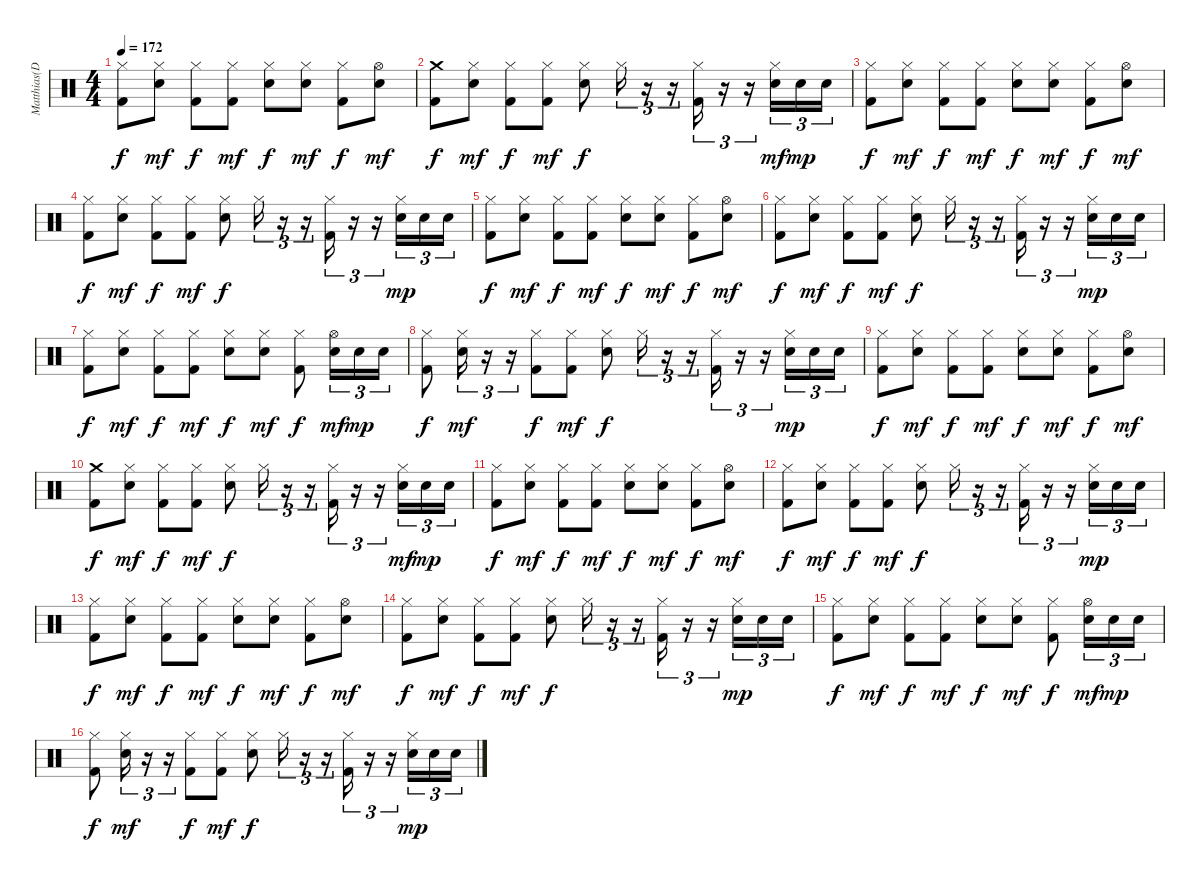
\track ("Matthias(Drums)" "Matthias(D") {instrument percussion}
\staff {score}
\articulation defaults
\ts (4 4)
\tempo 172
\clef neutral
\ks c
("Hi-Hat (closed)" "Kick (hit) 2").8{dy f} ("Hi-Hat (closed)" "Snare (hit) 2").8{dy mf} ("Hi-Hat (closed)" "Kick (hit) 2").8{dy f} ("Hi-Hat (closed)" "Kick (hit) 2").8{dy mf} ("Hi-Hat (closed)" "Snare (hit) 2").8{dy f} ("Hi-Hat (closed)" "Snare (hit) 2").8{dy mf} ("Hi-Hat (closed)" "Kick (hit) 2").8{dy f} ("Hi-Hat (open)" "Snare (hit) 2").8{dy mf} |
("Crash medium (hit)" "Kick (hit) 2").8{dy f} ("Hi-Hat (closed)" "Snare (hit) 2").8{dy mf} ("Hi-Hat (closed)" "Kick (hit) 2").8{dy f} ("Hi-Hat (closed)" "Kick (hit) 2").8{dy mf} ("Hi-Hat (closed)" "Snare (hit) 2").8{dy f} "Hi-Hat (closed)".16{tu (3 2)} r.16{tu (3 2)} r.16{tu (3 2)} ("Hi-Hat (closed)" "Kick (hit) 2").16{tu (3 2)} r.16{tu (3 2)} r.16{tu (3 2)} ("Hi-Hat (closed)" "Snare (hit) 2").16{tu (3 2) dy mf} "Snare (hit) 2".16{tu (3 2) dy mp} "Snare (hit) 2".16{tu (3 2)} |
("Hi-Hat (closed)" "Kick (hit) 2").8{dy f} ("Hi-Hat (closed)" "Snare (hit) 2").8{dy mf} ("Hi-Hat (closed)" "Kick (hit) 2").8{dy f} ("Hi-Hat (closed)" "Kick (hit) 2").8{dy mf} ("Hi-Hat (closed)" "Snare (hit) 2").8{dy f} ("Hi-Hat (closed)" "Snare (hit) 2").8{dy mf} ("Hi-Hat (closed)" "Kick (hit) 2").8{dy f} ("Hi-Hat (open)" "Snare (hit) 2").8{dy mf} |
("Hi-Hat (closed)" "Kick (hit) 2").8{dy f} ("Hi-Hat (closed)" "Snare (hit) 2").8{dy mf} ("Hi-Hat (closed)" "Kick (hit) 2").8{dy f} ("Hi-Hat (closed)" "Kick (hit) 2").8{dy mf} ("Hi-Hat (closed)" "Snare (hit) 2").8{dy f} "Hi-Hat (closed)".16{tu (3 2)} r.16{tu (3 2)} r.16{tu (3 2)} ("Hi-Hat (closed)" "Kick (hit) 2").16{tu (3 2)} r.16{tu (3 2)} r.16{tu (3 2)} ("Hi-Hat (closed)" "Snare (hit) 2").16{tu (3 2) dy mp} "Snare (hit) 2".16{tu (3 2)} "Snare (hit) 2".16{tu (3 2)} |
("Hi-Hat (closed)" "Kick (hit) 2").8{dy f} ("Hi-Hat (closed)" "Snare (hit) 2").8{dy mf} ("Hi-Hat (closed)" "Kick (hit) 2").8{dy f} ("Hi-Hat (closed)" "Kick (hit) 2").8{dy mf} ("Hi-Hat (closed)" "Snare (hit) 2").8{dy f} ("Hi-Hat (closed)" "Snare (hit) 2").8{dy mf} ("Hi-Hat (closed)" "Kick (hit) 2").8{dy f} ("Hi-Hat (open)" "Snare (hit) 2").8{dy mf} |
("Hi-Hat (closed)" "Kick (hit) 2").8{dy f} ("Hi-Hat (closed)" "Snare (hit) 2").8{dy mf} ("Hi-Hat (closed)" "Kick (hit) 2").8{dy f} ("Hi-Hat (closed)" "Kick (hit) 2").8{dy mf} ("Hi-Hat (closed)" "Snare (hit) 2").8{dy f} "Hi-Hat (closed)".16{tu (3 2)} r.16{tu (3 2)} r.16{tu (3 2)} ("Hi-Hat (closed)" "Kick (hit) 2").16{tu (3 2)} r.16{tu (3 2)} r.16{tu (3 2)} ("Hi-Hat (closed)" "Snare (hit) 2").16{tu (3 2) dy mp} "Snare (hit) 2".16{tu (3 2)} "Snare (hit) 2".16{tu (3 2)} |
("Hi-Hat (closed)" "Kick (hit) 2").8{dy f} ("Hi-Hat (closed)" "Snare (hit) 2").8{dy mf} ("Hi-Hat (closed)" "Kick (hit) 2").8{dy f} ("Hi-Hat (closed)" "Kick (hit) 2").8{dy mf} ("Hi-Hat (closed)" "Snare (hit) 2").8{dy f} ("Hi-Hat (closed)" "Snare (hit) 2").8{dy mf} ("Hi-Hat (closed)" "Kick (hit) 2").8{dy f} ("Hi-Hat (open)" "Snare (hit) 2").16{tu (3 2) dy mf} "Snare (hit) 2".16{tu (3 2) dy mp} "Snare (hit) 2".16{tu (3 2)} |
("Hi-Hat (closed)" "Kick (hit) 2").8{dy f} ("Hi-Hat (closed)" "Snare (hit) 2").16{tu (3 2) dy mf} r.16{tu (3 2)} r.16{tu (3 2)} ("Hi-Hat (closed)" "Kick (hit) 2").8{dy f} ("Hi-Hat (closed)" "Kick (hit) 2").8{dy mf} ("Hi-Hat (closed)" "Snare (hit) 2").8{dy f} "Hi-Hat (closed)".16{tu (3 2)} r.16{tu (3 2)} r.16{tu (3 2)} ("Hi-Hat (closed)" "Kick (hit) 2").16{tu (3 2)} r.16{tu (3 2)} r.16{tu (3 2)} ("Hi-Hat (closed)" "Snare (hit) 2").16{tu (3 2) dy mp} "Snare (hit) 2".16{tu (3 2)} "Snare (hit) 2".16{tu (3 2)} |
("Hi-Hat (closed)" "Kick (hit) 2").8{dy f} ("Hi-Hat (closed)" "Snare (hit) 2").8{dy mf} ("Hi-Hat (closed)" "Kick (hit) 2").8{dy f} ("Hi-Hat (closed)" "Kick (hit) 2").8{dy mf} ("Hi-Hat (closed)" "Snare (hit) 2").8{dy f} ("Hi-Hat (closed)" "Snare (hit) 2").8{dy mf} ("Hi-Hat (closed)" "Kick (hit) 2").8{dy f} ("Hi-Hat (open)" "Snare (hit) 2").8{dy mf} |
("Crash medium (hit)" "Kick (hit) 2").8{dy f} ("Hi-Hat (closed)" "Snare (hit) 2").8{dy mf} ("Hi-Hat (closed)" "Kick (hit) 2").8{dy f} ("Hi-Hat (closed)" "Kick (hit) 2").8{dy mf} ("Hi-Hat (closed)" "Snare (hit) 2").8{dy f} "Hi-Hat (closed)".16{tu (3 2)} r.16{tu (3 2)} r.16{tu (3 2)} ("Hi-Hat (closed)" "Kick (hit) 2").16{tu (3 2)} r.16{tu (3 2)} r.16{tu (3 2)} ("Hi-Hat (closed)" "Snare (hit) 2").16{tu (3 2) dy mf} "Snare (hit) 2".16{tu (3 2) dy mp} "Snare (hit) 2".16{tu (3 2)} |
("Hi-Hat (closed)" "Kick (hit) 2").8{dy f} ("Hi-Hat (closed)" "Snare (hit) 2").8{dy mf} ("Hi-Hat (closed)" "Kick (hit) 2").8{dy f} ("Hi-Hat (closed)" "Kick (hit) 2").8{dy mf} ("Hi-Hat (closed)" "Snare (hit) 2").8{dy f} ("Hi-Hat (closed)" "Snare (hit) 2").8{dy mf} ("Hi-Hat (closed)" "Kick (hit) 2").8{dy f} ("Hi-Hat (open)" "Snare (hit) 2").8{dy mf} |
("Hi-Hat (closed)" "Kick (hit) 2").8{dy f} ("Hi-Hat (closed)" "Snare (hit) 2").8{dy mf} ("Hi-Hat (closed)" "Kick (hit) 2").8{dy f} ("Hi-Hat (closed)" "Kick (hit) 2").8{dy mf} ("Hi-Hat (closed)" "Snare (hit) 2").8{dy f} "Hi-Hat (closed)".16{tu (3 2)} r.16{tu (3 2)} r.16{tu (3 2)} ("Hi-Hat (closed)" "Kick (hit) 2").16{tu (3 2)} r.16{tu (3 2)} r.16{tu (3 2)} ("Hi-Hat (closed)" "Snare (hit) 2").16{tu (3 2) dy mp} "Snare (hit) 2".16{tu (3 2)} "Snare (hit) 2".16{tu (3 2)} |
("Hi-Hat (closed)" "Kick (hit) 2").8{dy f} ("Hi-Hat (closed)" "Snare (hit) 2").8{dy mf} ("Hi-Hat (closed)" "Kick (hit) 2").8{dy f} ("Hi-Hat (closed)" "Kick (hit) 2").8{dy mf} ("Hi-Hat (closed)" "Snare (hit) 2").8{dy f} ("Hi-Hat (closed)" "Snare (hit) 2").8{dy mf} ("Hi-Hat (closed)" "Kick (hit) 2").8{dy f} ("Hi-Hat (open)" "Snare (hit) 2").8{dy mf} |
("Hi-Hat (closed)" "Kick (hit) 2").8{dy f} ("Hi-Hat (closed)" "Snare (hit) 2").8{dy mf} ("Hi-Hat (closed)" "Kick (hit) 2").8{dy f} ("Hi-Hat (closed)" "Kick (hit) 2").8{dy mf} ("Hi-Hat (closed)" "Snare (hit) 2").8{dy f} "Hi-Hat (closed)".16{tu (3 2)} r.16{tu (3 2)} r.16{tu (3 2)} ("Hi-Hat (closed)" "Kick (hit) 2").16{tu (3 2)} r.16{tu (3 2)} r.16{tu (3 2)} ("Hi-Hat (closed)" "Snare (hit) 2").16{tu (3 2) dy mp} "Snare (hit) 2".16{tu (3 2)} "Snare (hit) 2".16{tu (3 2)} |
("Hi-Hat (closed)" "Kick (hit) 2").8{dy f} ("Hi-Hat (closed)" "Snare (hit) 2").8{dy mf} ("Hi-Hat (closed)" "Kick (hit) 2").8{dy f} ("Hi-Hat (closed)" "Kick (hit) 2").8{dy mf} ("Hi-Hat (closed)" "Snare (hit) 2").8{dy f} ("Hi-Hat (closed)" "Snare (hit) 2").8{dy mf} ("Hi-Hat (closed)" "Kick (hit) 2").8{dy f} ("Hi-Hat (open)" "Snare (hit) 2").16{tu (3 2) dy mf} "Snare (hit) 2".16{tu (3 2) dy mp} "Snare (hit) 2".16{tu (3 2)} |
("Hi-Hat (closed)" "Kick (hit) 2").8{dy f} ("Hi-Hat (closed)" "Snare (hit) 2").16{tu (3 2) dy mf} r.16{tu (3 2)} r.16{tu (3 2)} ("Hi-Hat (closed)" "Kick (hit) 2").8{dy f} ("Hi-Hat (closed)" "Kick (hit) 2").8{dy mf} ("Hi-Hat (closed)" "Snare (hit) 2").8{dy f} "Hi-Hat (closed)".16{tu (3 2)} r.16{tu (3 2)} r.16{tu (3 2)} ("Hi-Hat (closed)" "Kick (hit) 2").16{tu (3 2)} r.16{tu (3 2)} r.16{tu (3 2)} ("Hi-Hat (closed)" "Snare (hit) 2").16{tu (3 2) dy mp} "Snare (hit) 2".16{tu (3 2)} "Snare (hit) 2".16{tu (3 2)}
